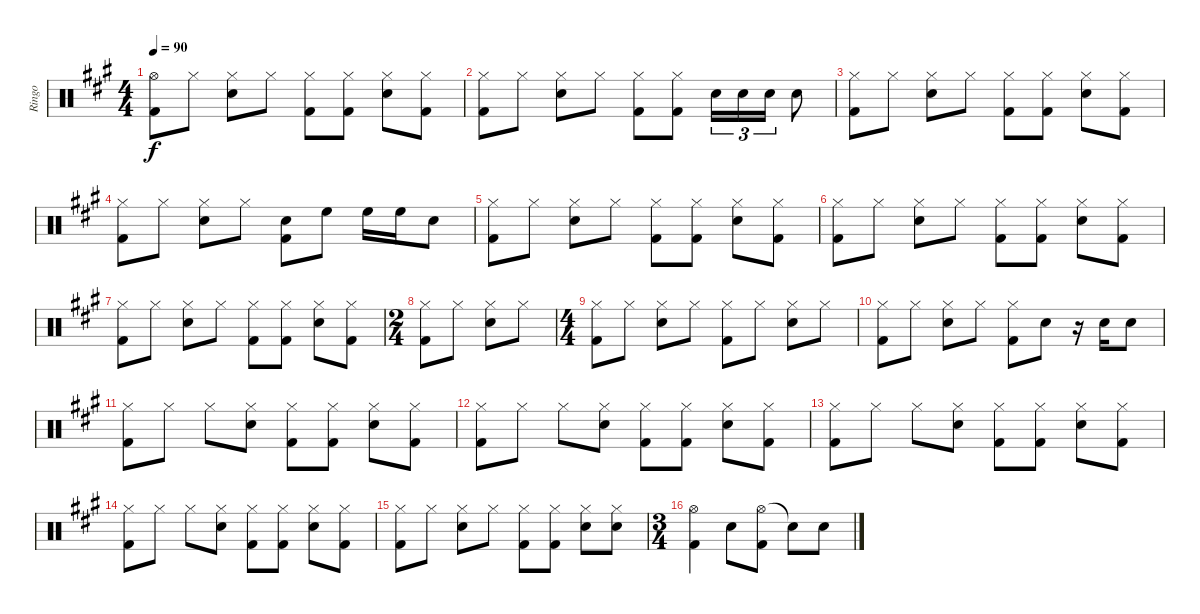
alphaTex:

\track ("Ringo" "Ringo") {instrument percussion}
\staff {score}
\articulation defaults
\ts (4 4)
\tempo 90
\clef neutral
\ks a
("Hi-Hat (open)" "Kick (hit) 2").8{dy f} "Hi-Hat (closed)".8 ("Hi-Hat (closed)" "Snare (hit) 2").8 "Hi-Hat (closed)".8 ("Hi-Hat (closed)" "Kick (hit) 2").8 ("Hi-Hat (closed)" "Kick (hit) 2").8 ("Hi-Hat (closed)" "Snare (hit) 2").8 ("Hi-Hat (closed)" "Kick (hit) 2").8 |
("Hi-Hat (closed)" "Kick (hit) 2").8 "Hi-Hat (closed)".8 ("Hi-Hat (closed)" "Snare (hit) 2").8 "Hi-Hat (closed)".8 ("Hi-Hat (closed)" "Kick (hit) 2").8 ("Hi-Hat (closed)" "Kick (hit) 2").8 "Snare (hit) 2".16{tu (3 2)} "Snare (hit) 2".16{tu (3 2)} "Snare (hit) 2".16{tu (3 2)} "Snare (hit) 2".8 |
("Hi-Hat (closed)" "Kick (hit) 2").8 "Hi-Hat (closed)".8 ("Hi-Hat (closed)" "Snare (hit) 2").8 "Hi-Hat (closed)".8 ("Hi-Hat (closed)" "Kick (hit) 2").8 ("Hi-Hat (closed)" "Kick (hit) 2").8 ("Hi-Hat (closed)" "Snare (hit) 2").8 ("Hi-Hat (closed)" "Kick (hit) 2").8 |
("Hi-Hat (closed)" "Kick (hit) 2").8 "Hi-Hat (closed)".8 ("Hi-Hat (closed)" "Snare (hit) 2").8 "Hi-Hat (closed)".8 ("Snare (hit) 2" "Kick (hit) 2").8 "High Floor Tom (hit)".8 "High Floor Tom (hit)".16 "High Floor Tom (hit)".16 "Snare (hit) 2".8 |
("Hi-Hat (closed)" "Kick (hit) 2").8 "Hi-Hat (closed)".8 ("Hi-Hat (closed)" "Snare (hit) 2").8 "Hi-Hat (closed)".8 ("Hi-Hat (closed)" "Kick (hit) 2").8 ("Hi-Hat (closed)" "Kick (hit) 2").8 ("Hi-Hat (closed)" "Snare (hit) 2").8 ("Hi-Hat (closed)" "Kick (hit) 2").8 |
("Hi-Hat (closed)" "Kick (hit) 2").8 "Hi-Hat (closed)".8 ("Hi-Hat (closed)" "Snare (hit) 2").8 "Hi-Hat (closed)".8 ("Hi-Hat (closed)" "Kick (hit) 2").8 ("Hi-Hat (closed)" "Kick (hit) 2").8 ("Hi-Hat (closed)" "Snare (hit) 2").8 ("Hi-Hat (closed)" "Kick (hit) 2").8 |
("Hi-Hat (closed)" "Kick (hit) 2").8 "Hi-Hat (closed)".8 ("Hi-Hat (closed)" "Snare (hit) 2").8 "Hi-Hat (closed)".8 ("Hi-Hat (closed)" "Kick (hit) 2").8 ("Hi-Hat (closed)" "Kick (hit) 2").8 ("Hi-Hat (closed)" "Snare (hit) 2").8 ("Hi-Hat (closed)" "Kick (hit) 2").8 |
\ts (2 4)
("Hi-Hat (closed)" "Kick (hit) 2").8 "Hi-Hat (closed)".8 ("Hi-Hat (closed)" "Snare (hit) 2").8 "Hi-Hat (closed)".8 |
\ts (4 4)
("Hi-Hat (closed)" "Kick (hit) 2").8 "Hi-Hat (closed)".8 ("Hi-Hat (closed)" "Snare (hit) 2").8 "Hi-Hat (closed)".8 ("Hi-Hat (closed)" "Kick (hit) 2").8 "Hi-Hat (closed)".8 ("Hi-Hat (closed)" "Snare (hit) 2").8 "Hi-Hat (closed)".8 |
("Hi-Hat (closed)" "Kick (hit) 2").8 "Hi-Hat (closed)".8 ("Hi-Hat (closed)" "Snare (hit) 2").8 "Hi-Hat (closed)".8 ("Hi-Hat (closed)" "Kick (hit) 2").8 "Snare (hit) 2".8 r.16 "Snare (hit) 2".16 "Snare (hit) 2".8 |
("Hi-Hat (closed)" "Kick (hit) 2").8 "Hi-Hat (closed)".8 "Hi-Hat (closed)".8 ("Hi-Hat (closed)" "Snare (hit) 2").8 ("Hi-Hat (closed)" "Kick (hit) 2").8 ("Hi-Hat (closed)" "Kick (hit) 2").8 ("Hi-Hat (closed)" "Snare (hit) 2").8 ("Hi-Hat (closed)" "Kick (hit) 2").8 |
("Hi-Hat (closed)" "Kick (hit) 2").8 "Hi-Hat (closed)".8 "Hi-Hat (closed)".8 ("Hi-Hat (closed)" "Snare (hit) 2").8 ("Hi-Hat (closed)" "Kick (hit) 2").8 ("Hi-Hat (closed)" "Kick (hit) 2").8 ("Hi-Hat (closed)" "Snare (hit) 2").8 ("Hi-Hat (closed)" "Kick (hit) 2").8 |
("Hi-Hat (closed)" "Kick (hit) 2").8 "Hi-Hat (closed)".8 "Hi-Hat (closed)".8 ("Hi-Hat (closed)" "Snare (hit) 2").8 ("Hi-Hat (closed)" "Kick (hit) 2").8 ("Hi-Hat (closed)" "Kick (hit) 2").8 ("Hi-Hat (closed)" "Snare (hit) 2").8 ("Hi-Hat (closed)" "Kick (hit) 2").8 |
("Hi-Hat (closed)" "Kick (hit) 2").8 "Hi-Hat (closed)".8 "Hi-Hat (closed)".8 ("Hi-Hat (closed)" "Snare (hit) 2").8 ("Hi-Hat (closed)" "Kick (hit) 2").8 ("Hi-Hat (closed)" "Kick (hit) 2").8 ("Hi-Hat (closed)" "Snare (hit) 2").8 ("Hi-Hat (closed)" "Kick (hit) 2").8 |
("Hi-Hat (closed)" "Kick (hit) 2").8 "Hi-Hat (closed)".8 ("Hi-Hat (closed)" "Snare (hit) 2").8 "Hi-Hat (closed)".8 ("Hi-Hat (closed)" "Kick (hit) 2").8 ("Hi-Hat (closed)" "Kick (hit) 2").8 ("Hi-Hat (closed)" "Snare (hit) 2").8 ("Hi-Hat (closed)" "Snare (hit) 2").8 |
\ts (3 4)
("Hi-Hat (open)" "Kick (hit) 2").4 "Snare (hit) 2".8 ("Hi-Hat (open)" "Kick (hit) 2").8 "Snare (hit)"{t}.8 "Snare (hit) 2".8
